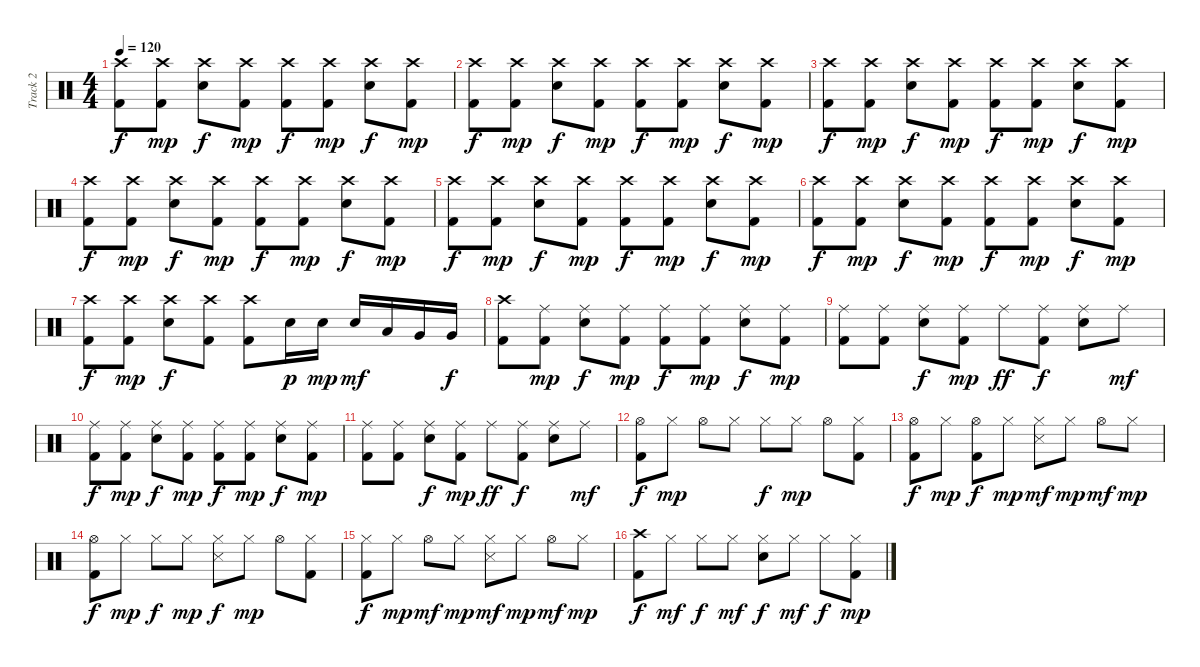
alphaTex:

\track ("Track 2" "Track 2") {instrument percussion}
\staff {score}
\articulation defaults
\ts (4 4)
\tempo 120
\clef neutral
\ks c
("Crash high (hit)" "Kick (hit) 2").8{dy f} ("Crash high (hit)" "Kick (hit) 2").8{dy mp} ("Crash high (hit)" "Electric Snare (hit)").8{dy f} ("Crash high (hit)" "Kick (hit) 2").8{dy mp} ("Crash high (hit)" "Kick (hit) 2").8{dy f} ("Crash high (hit)" "Kick (hit) 2").8{dy mp} ("Crash high (hit)" "Electric Snare (hit)").8{dy f} ("Crash high (hit)" "Kick (hit) 2").8{dy mp} |
("Crash high (hit)" "Kick (hit) 2").8{dy f} ("Crash high (hit)" "Kick (hit) 2").8{dy mp} ("Crash high (hit)" "Electric Snare (hit)").8{dy f} ("Crash high (hit)" "Kick (hit) 2").8{dy mp} ("Crash high (hit)" "Kick (hit) 2").8{dy f} ("Crash high (hit)" "Kick (hit) 2").8{dy mp} ("Crash high (hit)" "Electric Snare (hit)").8{dy f} ("Crash high (hit)" "Kick (hit) 2").8{dy mp} |
("Crash high (hit)" "Kick (hit) 2").8{dy f} ("Crash high (hit)" "Kick (hit) 2").8{dy mp} ("Crash high (hit)" "Electric Snare (hit)").8{dy f} ("Crash high (hit)" "Kick (hit) 2").8{dy mp} ("Crash high (hit)" "Kick (hit) 2").8{dy f} ("Crash high (hit)" "Kick (hit) 2").8{dy mp} ("Crash high (hit)" "Electric Snare (hit)").8{dy f} ("Crash high (hit)" "Kick (hit) 2").8{dy mp} |
("Crash high (hit)" "Kick (hit) 2").8{dy f} ("Crash high (hit)" "Kick (hit) 2").8{dy mp} ("Crash high (hit)" "Electric Snare (hit)").8{dy f} ("Crash high (hit)" "Kick (hit) 2").8{dy mp} ("Crash high (hit)" "Kick (hit) 2").8{dy f} ("Crash high (hit)" "Kick (hit) 2").8{dy mp} ("Crash high (hit)" "Electric Snare (hit)").8{dy f} ("Crash high (hit)" "Kick (hit) 2").8{dy mp} |
("Crash high (hit)" "Kick (hit) 2").8{dy f} ("Crash high (hit)" "Kick (hit) 2").8{dy mp} ("Crash high (hit)" "Electric Snare (hit)").8{dy f} ("Crash high (hit)" "Kick (hit) 2").8{dy mp} ("Crash high (hit)" "Kick (hit) 2").8{dy f} ("Crash high (hit)" "Kick (hit) 2").8{dy mp} ("Crash high (hit)" "Electric Snare (hit)").8{dy f} ("Crash high (hit)" "Kick (hit) 2").8{dy mp} |
("Crash high (hit)" "Kick (hit) 2").8{dy f} ("Crash high (hit)" "Kick (hit) 2").8{dy mp} ("Crash high (hit)" "Electric Snare (hit)").8{dy f} ("Crash high (hit)" "Kick (hit) 2").8{dy mp} ("Crash high (hit)" "Kick (hit) 2").8{dy f} ("Crash high (hit)" "Kick (hit) 2").8{dy mp} ("Crash high (hit)" "Electric Snare (hit)").8{dy f} ("Crash high (hit)" "Kick (hit) 2").8{dy mp} |
("Crash high (hit)" "Kick (hit) 2").8{dy f} ("Crash high (hit)" "Kick (hit) 2").8{dy mp} ("Crash high (hit)" "Electric Snare (hit)").8{dy f} ("Crash high (hit)" "Kick (hit) 2").8 ("Crash high (hit)" "Kick (hit) 2").8 "Electric Snare (hit)".16{dy p} "Electric Snare (hit)".16{dy mp} "Electric Snare (hit)".16{dy mf} "Low Tom (hit)".16 "Very Low Tom (hit)".16 "Very Low Tom (hit)".16{dy f} |
("Crash high (hit)" "Kick (hit) 2").8 ("Ride (middle)" "Kick (hit) 2").8{dy mp} ("Ride (middle)" "Electric Snare (hit)").8{dy f} ("Ride (middle)" "Kick (hit) 2").8{dy mp} ("Ride (middle)" "Kick (hit) 2").8{dy f} ("Ride (middle)" "Kick (hit) 2").8{dy mp} ("Ride (middle)" "Electric Snare (hit)").8{dy f} ("Ride (middle)" "Kick (hit) 2").8{dy mp} |
("Ride (middle)" "Kick (hit) 2").8 ("Ride (middle)" "Kick (hit) 2").8 ("Ride (middle)" "Electric Snare (hit)").8{dy f} ("Ride (middle)" "Kick (hit) 2").8{dy mp} "Ride (middle)".8{dy ff} ("Ride (middle)" "Kick (hit) 2").8{dy f} ("Ride (middle)" "Electric Snare (hit)").8 "Ride (middle)".8{dy mf} |
("Ride (middle)" "Kick (hit) 2").8{dy f} ("Ride (middle)" "Kick (hit) 2").8{dy mp} ("Ride (middle)" "Electric Snare (hit)").8{dy f} ("Ride (middle)" "Kick (hit) 2").8{dy mp} ("Ride (middle)" "Kick (hit) 2").8{dy f} ("Ride (middle)" "Kick (hit) 2").8{dy mp} ("Ride (middle)" "Electric Snare (hit)").8{dy f} ("Ride (middle)" "Kick (hit) 2").8{dy mp} |
("Ride (middle)" "Kick (hit) 2").8 ("Ride (middle)" "Kick (hit) 2").8 ("Ride (middle)" "Electric Snare (hit)").8{dy f} ("Ride (middle)" "Kick (hit) 2").8{dy mp} "Ride (middle)".8{dy ff} ("Ride (middle)" "Kick (hit) 2").8{dy f} ("Ride (middle)" "Electric Snare (hit)").8 "Ride (middle)".8{dy mf} |
("Hi-Hat (open)" "Kick (hit) 2").8{dy f} "Hi-Hat (closed)".8{dy mp} "Hi-Hat (open)".8 "Hi-Hat (closed)".8 "Hi-Hat (closed)".8{dy f} "Hi-Hat (closed)".8{dy mp} "Hi-Hat (open)".8 ("Hi-Hat (closed)" "Kick (hit) 2").8 |
("Hi-Hat (open)" "Kick (hit) 2").8{dy f} "Hi-Hat (closed)".8{dy mp} ("Hi-Hat (open)" "Kick (hit) 2").8{dy f} "Hi-Hat (closed)".8{dy mp} ("Hi-Hat (closed)" "Snare (side stick) 3").8{dy mf} "Hi-Hat (closed)".8{dy mp} "Hi-Hat (open)".8{dy mf} "Hi-Hat (closed)".8{dy mp} |
("Hi-Hat (open)" "Kick (hit) 2").8{dy f} "Hi-Hat (closed)".8{dy mp} "Hi-Hat (closed)".8{dy f} "Hi-Hat (closed)".8{dy mp} ("Hi-Hat (closed)" "Snare (side stick) 3").8{dy f} "Hi-Hat (closed)".8{dy mp} "Hi-Hat (open)".8 ("Hi-Hat (closed)" "Kick (hit) 2").8 |
("Hi-Hat (closed)" "Kick (hit) 2").8{dy f} "Hi-Hat (closed)".8{dy mp} "Hi-Hat (open)".8{dy mf} "Hi-Hat (closed)".8{dy mp} ("Hi-Hat (closed)" "Snare (side stick) 3").8{dy mf} "Hi-Hat (closed)".8{dy mp} "Hi-Hat (open)".8{dy mf} "Hi-Hat (closed)".8{dy mp} |
("Crash high (hit)" "Kick (hit) 2").8{dy f} "Hi-Hat (closed)".8{dy mf} "Hi-Hat (closed)".8{dy f} "Hi-Hat (closed)".8{dy mf} ("Hi-Hat (closed)" "Electric Snare (hit)").8{dy f} "Hi-Hat (closed)".8{dy mf} "Hi-Hat (closed)".8{dy f} ("Hi-Hat (closed)" "Kick (hit) 2").8{dy mp}
